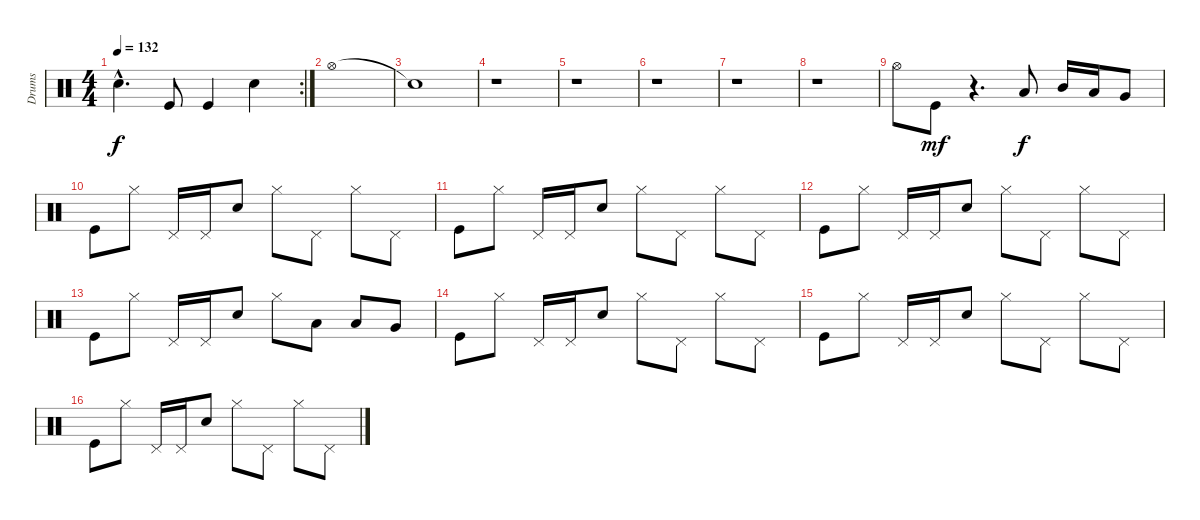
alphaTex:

\track ("Drums" "Drums") {instrument percussion}
\staff {score}
\articulation defaults
\rc 2
\ts (4 4)
\tempo 132
\clef neutral
\ks c "Snare (hit) 2"{hac}.4{d dy f} "Kick (hit)".8 "Kick (hit)".4 "Snare (hit) 2".4
|
"Hi-Hat (open)".1 |
"Snare (hit)"{t}.1 |
r.1 |
r.1 |
r.1 |
r.1 |
r.1 |
"Hi-Hat (open)".8 "Kick (hit)".8{dy mf} r.4{d} "Low Floor Tom (hit)".8{dy f} "Mid Tom (hit)".16 "Low Tom (hit)".16 "Very Low Tom (hit)".8 |
"Kick (hit)".8 "Hi-Hat (closed)".8 "Pedal Hi-Hat (hit)".16 "Pedal Hi-Hat (hit)".16 "Snare (hit) 2".8 "Hi-Hat (closed)".8 "Pedal Hi-Hat (hit)".8 "Hi-Hat (closed)".8 "Pedal Hi-Hat (hit)".8 |
"Kick (hit)".8 "Hi-Hat (closed)".8 "Pedal Hi-Hat (hit)".16 "Pedal Hi-Hat (hit)".16 "Snare (hit) 2".8 "Hi-Hat (closed)".8 "Pedal Hi-Hat (hit)".8 "Hi-Hat (closed)".8 "Pedal Hi-Hat (hit)".8 |
"Kick (hit)".8 "Hi-Hat (closed)".8 "Pedal Hi-Hat (hit)".16 "Pedal Hi-Hat (hit)".16 "Snare (hit) 2".8 "Hi-Hat (closed)".8 "Pedal Hi-Hat (hit)".8 "Hi-Hat (closed)".8 "Pedal Hi-Hat (hit)".8 |
"Kick (hit)".8 "Hi-Hat (closed)".8 "Pedal Hi-Hat (hit)".16 "Pedal Hi-Hat (hit)".16 "Snare (hit) 2".8 "Hi-Hat (closed)".8 "Low Tom (hit)".8 "Low Tom (hit)".8 "Very Low Tom (hit)".8 |
"Kick (hit)".8 "Hi-Hat (closed)".8 "Pedal Hi-Hat (hit)".16 "Pedal Hi-Hat (hit)".16 "Snare (hit) 2".8 "Hi-Hat (closed)".8 "Pedal Hi-Hat (hit)".8 "Hi-Hat (closed)".8 "Pedal Hi-Hat (hit)".8 |
"Kick (hit)".8 "Hi-Hat (closed)".8 "Pedal Hi-Hat (hit)".16 "Pedal Hi-Hat (hit)".16 "Snare (hit) 2".8 "Hi-Hat (closed)".8 "Pedal Hi-Hat (hit)".8 "Hi-Hat (closed)".8 "Pedal Hi-Hat (hit)".8 |
"Kick (hit)".8 "Hi-Hat (closed)".8 "Pedal Hi-Hat (hit)".16 "Pedal Hi-Hat (hit)".16 "Snare (hit) 2".8 "Hi-Hat (closed)".8 "Pedal Hi-Hat (hit)".8 "Hi-Hat (closed)".8 "Pedal Hi-Hat (hit)".8
